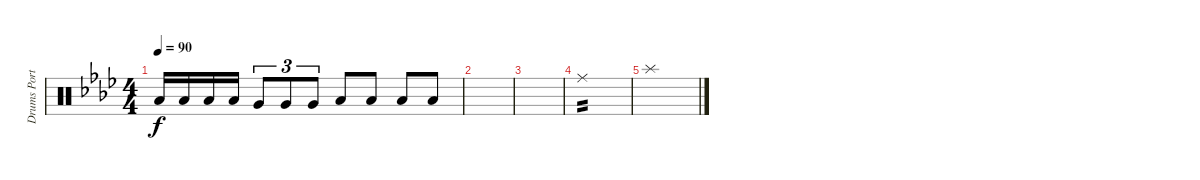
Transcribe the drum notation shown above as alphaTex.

\track ("Drums Portnoy" "Drums Port") {instrument percussion}
\staff {score}
\articulation defaults
\ts (4 4)
\tempo 90
\clef neutral
\ks ab "Low Tom (hit)".16{dy f} "Low Tom (hit)".16 "Low Tom (hit)".16 "Low Tom (hit)".16 "Very Low Tom (hit)".8{tu (3 2)} "Very Low Tom (hit)".8{tu (3 2)} "Very Low Tom (hit)".8{tu (3 2)} "Low Floor Tom (hit)".8 "Low Floor Tom (hit)".8 "Low Floor Tom (hit)".8 "Low Floor Tom (hit)".8
|
|
|
"Ride (middle)".1{tp 2} |
"Splash (hit)".1
